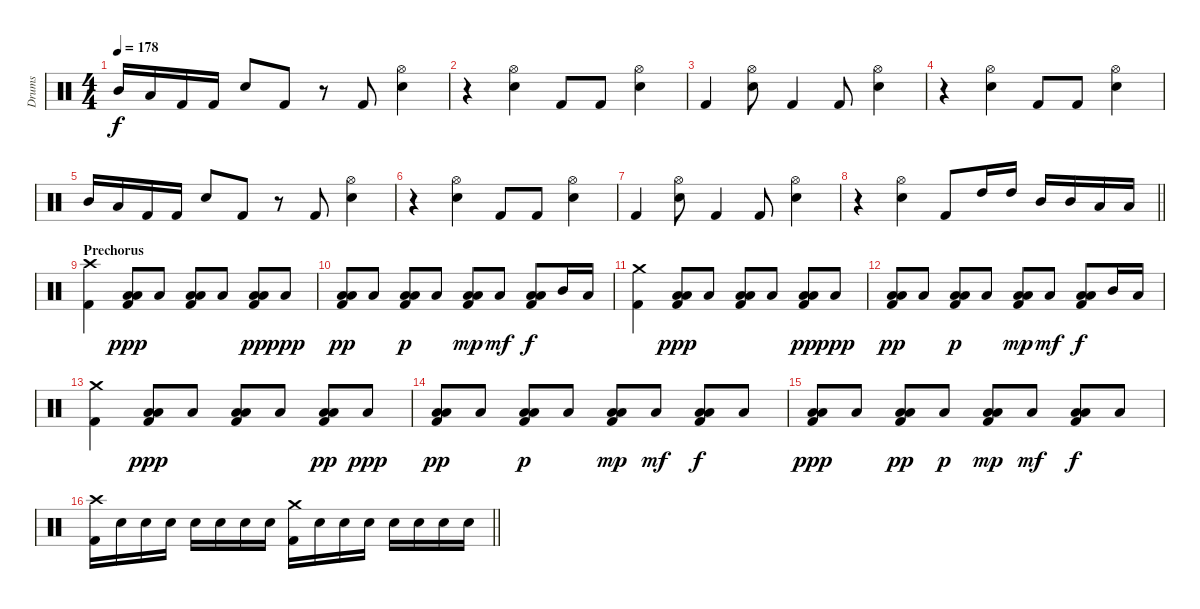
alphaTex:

\track ("Drums" "Drums") {instrument percussion}
\staff {score}
\articulation defaults
\ts (4 4)
\tempo 178
\clef neutral
\ks c "Mid Tom (hit)".16{dy f} "Low Tom (hit)".16 "Kick (hit) 2".16 "Kick (hit) 2".16 "Electric Snare (hit)".8 "Kick (hit) 2".8
r.8 "Kick (hit) 2".8 ("Hi-Hat (open)" "Electric Snare (hit)").4 |
r.4 ("Hi-Hat (open)" "Electric Snare (hit)").4 "Kick (hit) 2".8 "Kick (hit) 2".8 ("Hi-Hat (open)" "Electric Snare (hit)").4 |
"Kick (hit) 2".4 ("Hi-Hat (open)" "Electric Snare (hit)").8 "Kick (hit) 2".4 "Kick (hit) 2".8 ("Hi-Hat (open)" "Electric Snare (hit)").4 |
r.4 ("Hi-Hat (open)" "Electric Snare (hit)").4 "Kick (hit) 2".8 "Kick (hit) 2".8 ("Hi-Hat (open)" "Electric Snare (hit)").4 |
"Mid Tom (hit)".16 "Low Tom (hit)".16 "Kick (hit) 2".16 "Kick (hit) 2".16 "Electric Snare (hit)".8 "Kick (hit) 2".8 r.8 "Kick (hit) 2".8 ("Hi-Hat (open)" "Electric Snare (hit)").4 |
r.4 ("Hi-Hat (open)" "Electric Snare (hit)").4 "Kick (hit) 2".8 "Kick (hit) 2".8 ("Hi-Hat (open)" "Electric Snare (hit)").4 |
"Kick (hit) 2".4 ("Hi-Hat (open)" "Electric Snare (hit)").8 "Kick (hit) 2".4 "Kick (hit) 2".8 ("Hi-Hat (open)" "Electric Snare (hit)").4 |
\barLineRight lightlight
r.4 ("Hi-Hat (open)" "Electric Snare (hit)").4 "Kick (hit) 2".8 "High Tom (hit)".16 "High Tom (hit)".16 "Mid Tom (hit)".16 "Mid Tom (hit)".16 "Low Tom (hit)".16 "Low Tom (hit)".16 |
\section ("" "Prechorus")
("Crash high (hit)" "Kick (hit) 2").4 ("Low Tom (hit)" "Low Floor Tom (hit)" "Kick (hit) 2").8{dy ppp} "Low Floor Tom (hit)".8 ("Low Tom (hit)" "Low Floor Tom (hit)" "Kick (hit) 2").8 "Low Floor Tom (hit)".8 ("Low Tom (hit)" "Low Floor Tom (hit)" "Kick (hit) 2").8{dy pp} "Low Floor Tom (hit)".8{dy ppp} |
("Low Tom (hit)" "Low Floor Tom (hit)" "Kick (hit) 2").8{dy pp} "Low Floor Tom (hit)".8 ("Low Tom (hit)" "Low Floor Tom (hit)" "Kick (hit) 2").8{dy p} "Low Floor Tom (hit)".8 ("Low Tom (hit)" "Low Floor Tom (hit)" "Kick (hit) 2").8{dy mp} "Low Floor Tom (hit)".8{dy mf} ("Low Tom (hit)" "Low Floor Tom (hit)" "Kick (hit) 2").8{dy f} "Mid Tom (hit)".16 "Low Tom (hit)".16 |
("Crash medium (hit)" "Kick (hit) 2").4 ("Low Tom (hit)" "Low Floor Tom (hit)" "Kick (hit) 2").8{dy ppp} "Low Floor Tom (hit)".8 ("Low Tom (hit)" "Low Floor Tom (hit)" "Kick (hit) 2").8 "Low Floor Tom (hit)".8 ("Low Tom (hit)" "Low Floor Tom (hit)" "Kick (hit) 2").8{dy pp} "Low Floor Tom (hit)".8{dy ppp} |
("Low Tom (hit)" "Low Floor Tom (hit)" "Kick (hit) 2").8{dy pp} "Low Floor Tom (hit)".8 ("Low Tom (hit)" "Low Floor Tom (hit)" "Kick (hit) 2").8{dy p} "Low Floor Tom (hit)".8 ("Low Tom (hit)" "Low Floor Tom (hit)" "Kick (hit) 2").8{dy mp} "Low Floor Tom (hit)".8{dy mf} ("Low Tom (hit)" "Low Floor Tom (hit)" "Kick (hit) 2").8{dy f} "Mid Tom (hit)".16 "Low Tom (hit)".16 |
("Crash medium (hit)" "Kick (hit) 2").4 ("Low Tom (hit)" "Low Floor Tom (hit)" "Kick (hit) 2").8{dy ppp} "Low Floor Tom (hit)".8 ("Low Tom (hit)" "Low Floor Tom (hit)" "Kick (hit) 2").8 "Low Floor Tom (hit)".8 ("Low Tom (hit)" "Low Floor Tom (hit)" "Kick (hit) 2").8{dy pp} "Low Floor Tom (hit)".8{dy ppp} |
("Low Tom (hit)" "Low Floor Tom (hit)" "Kick (hit) 2").8{dy pp} "Low Floor Tom (hit)".8 ("Low Tom (hit)" "Low Floor Tom (hit)" "Kick (hit) 2").8{dy p} "Low Floor Tom (hit)".8 ("Low Tom (hit)" "Low Floor Tom (hit)" "Kick (hit) 2").8{dy mp} "Low Floor Tom (hit)".8{dy mf} ("Low Tom (hit)" "Low Floor Tom (hit)" "Kick (hit) 2").8{dy f} "Low Floor Tom (hit)".8 |
("Low Tom (hit)" "Low Floor Tom (hit)" "Kick (hit) 2").8{dy ppp} "Low Floor Tom (hit)".8 ("Low Tom (hit)" "Low Floor Tom (hit)" "Kick (hit) 2").8{dy pp} "Low Floor Tom (hit)".8{dy p} ("Low Tom (hit)" "Low Floor Tom (hit)" "Kick (hit) 2").8{dy mp} "Low Floor Tom (hit)".8{dy mf} ("Low Tom (hit)" "Low Floor Tom (hit)" "Kick (hit) 2").8{dy f} "Low Floor Tom (hit)".8 |
\barLineRight lightlight
("Crash high (hit)" "Kick (hit) 2").16 "Electric Snare (hit)".16 "Electric Snare (hit)".16 "Electric Snare (hit)".16 "Electric Snare (hit)".16 "Electric Snare (hit)".16 "Electric Snare (hit)".16 "Electric Snare (hit)".16 ("Crash medium (hit)" "Kick (hit) 2").16 "Electric Snare (hit)".16 "Electric Snare (hit)".16 "Electric Snare (hit)".16 "Electric Snare (hit)".16 "Electric Snare (hit)".16 "Electric Snare (hit)".16 "Electric Snare (hit)".16
